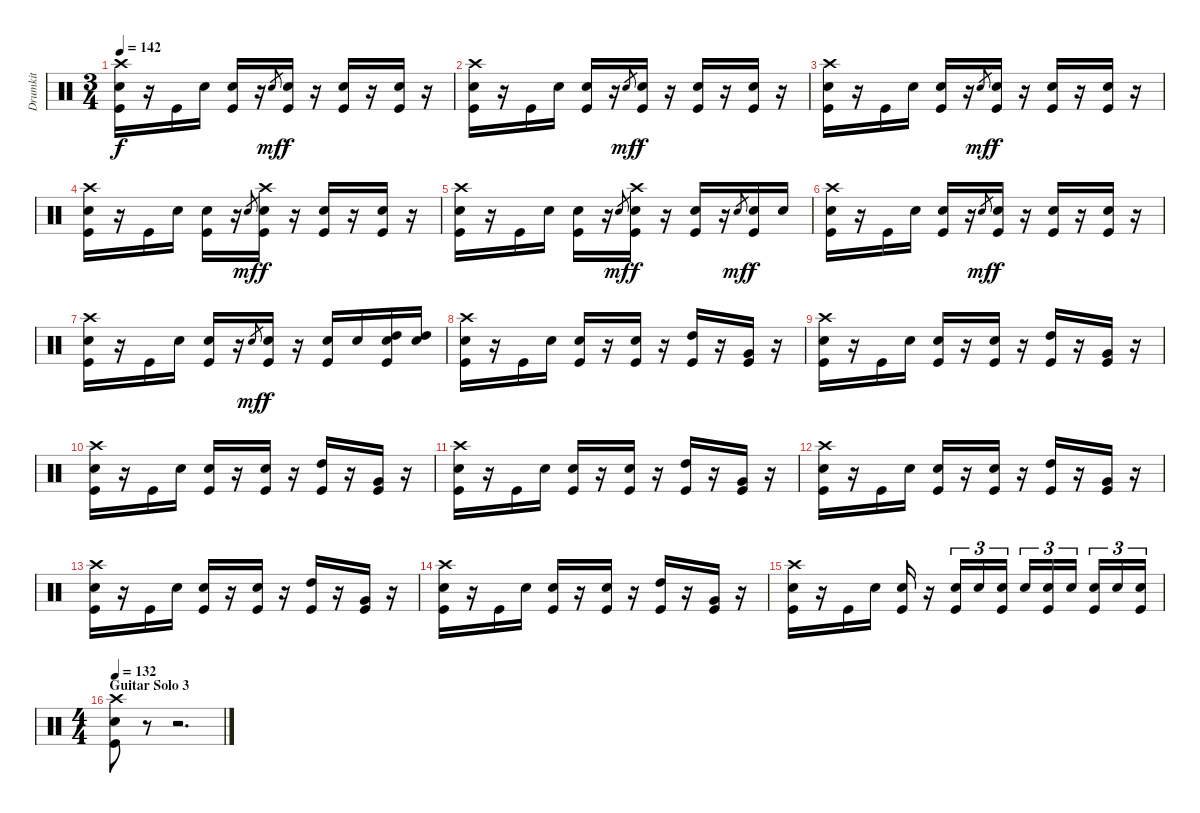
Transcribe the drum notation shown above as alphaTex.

\track ("Drumkit" "Drumkit") {instrument percussion}
\staff {score}
\articulation defaults
\ts (3 4)
\tempo 142
\clef neutral
\ks c
("Crash high (hit)" "Snare (hit) 2" "Kick (hit)").16{dy f} r.16 "Kick (hit)".16 "Snare (hit) 2".16 ("Snare (hit) 2" "Kick (hit)").16 r.16 "Snare (hit)".8{gr dy mf} ("Snare (hit) 2" "Kick (hit)").16{dy f} r.16 ("Snare (hit) 2" "Kick (hit)").16 r.16 ("Snare (hit) 2" "Kick (hit)").16 r.16 |
("Crash high (hit)" "Snare (hit) 2" "Kick (hit)").16 r.16 "Kick (hit)".16 "Snare (hit) 2".16 ("Snare (hit) 2" "Kick (hit)").16 r.16 "Snare (hit)".8{gr dy mf} ("Snare (hit) 2" "Kick (hit)").16{dy f} r.16 ("Snare (hit) 2" "Kick (hit)").16 r.16 ("Snare (hit) 2" "Kick (hit)").16 r.16 |
("Crash high (hit)" "Snare (hit) 2" "Kick (hit)").16 r.16 "Kick (hit)".16 "Snare (hit) 2".16 ("Snare (hit) 2" "Kick (hit)").16 r.16 "Snare (hit)".8{gr dy mf} ("Snare (hit) 2" "Kick (hit)").16{dy f} r.16 ("Snare (hit) 2" "Kick (hit)").16 r.16 ("Snare (hit) 2" "Kick (hit)").16 r.16 |
("Crash high (hit)" "Snare (hit) 2" "Kick (hit)").16 r.16 "Kick (hit)".16 "Snare (hit) 2".16 ("Snare (hit) 2" "Kick (hit)").16 r.16 "Snare (hit)".8{gr dy mf} ("Crash high (hit)" "Snare (hit) 2" "Kick (hit)").16{dy f} r.16 ("Snare (hit) 2" "Kick (hit)").16 r.16 ("Snare (hit) 2" "Kick (hit)").16 r.16 |
("Crash high (hit)" "Snare (hit) 2" "Kick (hit)").16 r.16 "Kick (hit)".16 "Snare (hit) 2".16 ("Snare (hit) 2" "Kick (hit)").16 r.16 "Snare (hit)".8{gr dy mf} ("Crash high (hit)" "Snare (hit) 2" "Kick (hit)").16{dy f} r.16 ("Snare (hit) 2" "Kick (hit)").16 r.16 "Snare (hit)".8{gr dy mf} ("Snare (hit) 2" "Kick (hit)").16{dy f} "Snare (hit) 2".16 |
("Crash high (hit)" "Snare (hit) 2" "Kick (hit)").16 r.16 "Kick (hit)".16 "Snare (hit) 2".16 ("Snare (hit) 2" "Kick (hit)").16 r.16 "Snare (hit)".8{gr dy mf} ("Snare (hit) 2" "Kick (hit)").16{dy f} r.16 ("Snare (hit) 2" "Kick (hit)").16 r.16 ("Snare (hit) 2" "Kick (hit)").16 r.16 |
("Crash high (hit)" "Snare (hit) 2" "Kick (hit)").16 r.16 "Kick (hit)".16 "Snare (hit) 2".16 ("Snare (hit) 2" "Kick (hit)").16 r.16 "Snare (hit)".8{gr dy mf} ("Snare (hit) 2" "Kick (hit)").16{dy f} r.16 ("Snare (hit) 2" "Kick (hit)").16 "Snare (hit) 2".16 ("Snare (hit) 2" "High Tom (hit)" "Kick (hit)").16 ("Snare (hit) 2" "High Tom (hit)").16 |
("Crash high (hit)" "Snare (hit) 2" "Kick (hit)").16 r.16 "Kick (hit)".16 "Snare (hit) 2".16 ("Snare (hit) 2" "Kick (hit)").16 r.16 ("Snare (hit) 2" "Kick (hit)").16 r.16 ("High Tom (hit)" "Kick (hit)").16 r.16 ("Very Low Tom (hit)" "Kick (hit)").16 r.16 |
("Crash high (hit)" "Snare (hit) 2" "Kick (hit)").16 r.16 "Kick (hit)".16 "Snare (hit) 2".16 ("Snare (hit) 2" "Kick (hit)").16 r.16 ("Snare (hit) 2" "Kick (hit)").16 r.16 ("High Tom (hit)" "Kick (hit)").16 r.16 ("Very Low Tom (hit)" "Kick (hit)").16 r.16 |
("Crash high (hit)" "Snare (hit) 2" "Kick (hit)").16 r.16 "Kick (hit)".16 "Snare (hit) 2".16 ("Snare (hit) 2" "Kick (hit)").16 r.16 ("Snare (hit) 2" "Kick (hit)").16 r.16 ("High Tom (hit)" "Kick (hit)").16 r.16 ("Very Low Tom (hit)" "Kick (hit)").16 r.16 |
("Crash high (hit)" "Snare (hit) 2" "Kick (hit)").16 r.16 "Kick (hit)".16 "Snare (hit) 2".16 ("Snare (hit) 2" "Kick (hit)").16 r.16 ("Snare (hit) 2" "Kick (hit)").16 r.16 ("High Tom (hit)" "Kick (hit)").16 r.16 ("Very Low Tom (hit)" "Kick (hit)").16 r.16 |
("Crash high (hit)" "Snare (hit) 2" "Kick (hit)").16 r.16 "Kick (hit)".16 "Snare (hit) 2".16 ("Snare (hit) 2" "Kick (hit)").16 r.16 ("Snare (hit) 2" "Kick (hit)").16 r.16 ("High Tom (hit)" "Kick (hit)").16 r.16 ("Very Low Tom (hit)" "Kick (hit)").16 r.16 |
("Crash high (hit)" "Snare (hit) 2" "Kick (hit)").16 r.16 "Kick (hit)".16 "Snare (hit) 2".16 ("Snare (hit) 2" "Kick (hit)").16 r.16 ("Snare (hit) 2" "Kick (hit)").16 r.16 ("High Tom (hit)" "Kick (hit)").16 r.16 ("Very Low Tom (hit)" "Kick (hit)").16 r.16 |
("Crash high (hit)" "Snare (hit) 2" "Kick (hit)").16 r.16 "Kick (hit)".16 "Snare (hit) 2".16 ("Snare (hit) 2" "Kick (hit)").16 r.16 ("Snare (hit) 2" "Kick (hit)").16 r.16 ("High Tom (hit)" "Kick (hit)").16 r.16 ("Very Low Tom (hit)" "Kick (hit)").16 r.16 |
("Crash high (hit)" "Snare (hit) 2" "Kick (hit)").16 r.16 "Kick (hit)".16 "Snare (hit) 2".16 ("Snare (hit) 2" "Kick (hit)").16 r.16 ("Snare (hit) 2" "Kick (hit)").16{tu (3 2)} "Snare (hit) 2".16{tu (3 2)} ("Snare (hit) 2" "Kick (hit)").16{tu (3 2)} "Snare (hit) 2".16{tu (3 2)} ("Snare (hit) 2" "Kick (hit)").16{tu (3 2)} "Snare (hit) 2".16{tu (3 2)} ("Snare (hit) 2" "Kick (hit)").16{tu (3 2)} "Snare (hit) 2".16{tu (3 2)} ("Snare (hit) 2" "Kick (hit)").16{tu (3 2)} |
\ts (4 4)
\section ("" "Guitar Solo 3")
\tempo 132
("Crash high (hit)" "Snare (hit) 2" "Kick (hit)").8 r.8 r.2{d}
